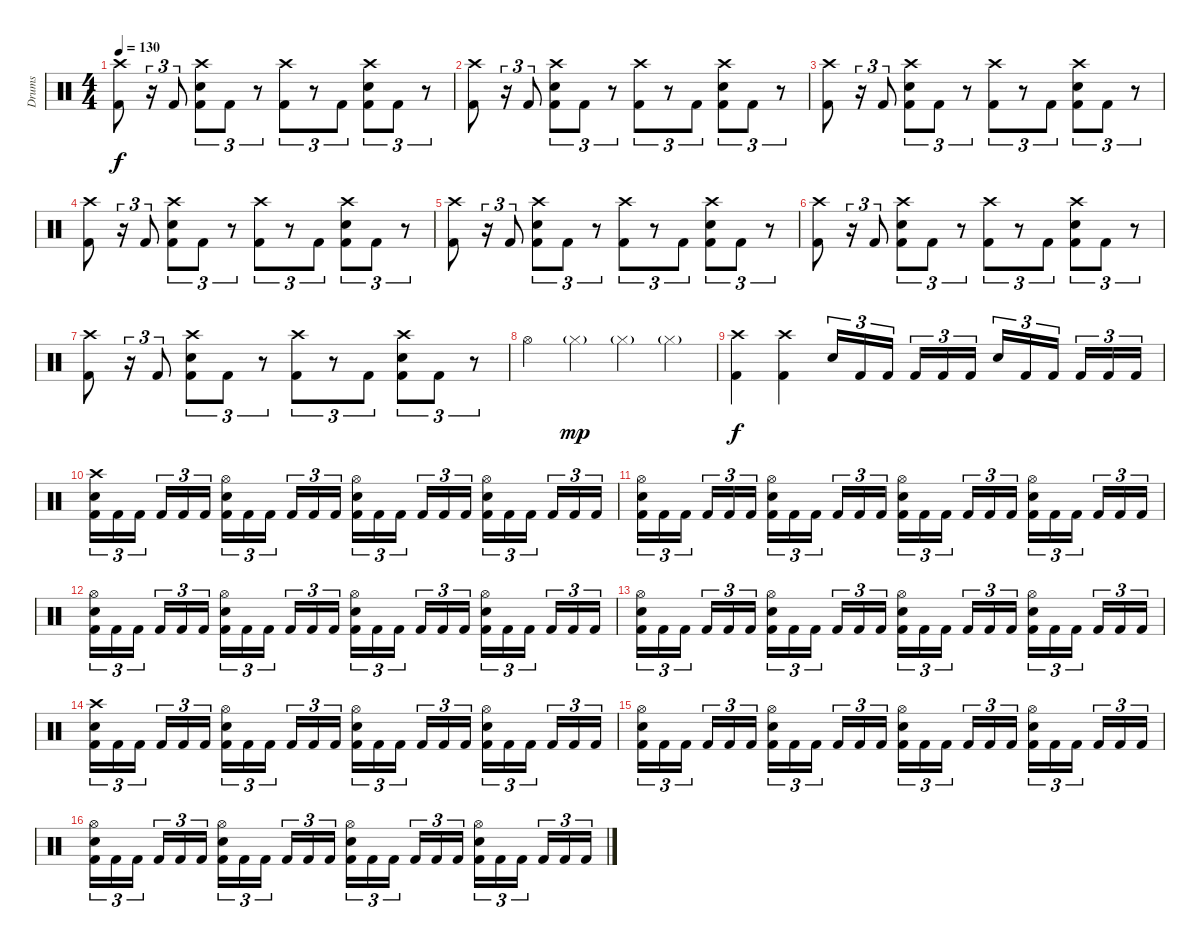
\track ("Drums" "Drums") {instrument percussion}
\staff {score}
\articulation defaults
\ts (4 4)
\tempo 130
\clef neutral
\ks c
("Crash high (hit)" "Kick (hit) 2").8{dy f} r.16{tu (3 2)} "Kick (hit) 2".8{tu (3 2)} ("Crash high (hit)" "Electric Snare (hit)" "Kick (hit) 2").8{tu (3 2)} "Kick (hit) 2".8{tu (3 2)} r.8{tu (3 2)} ("Crash high (hit)" "Kick (hit) 2").8{tu (3 2)} r.8{tu (3 2)} "Kick (hit) 2".8{tu (3 2)} ("Crash high (hit)" "Electric Snare (hit)" "Kick (hit) 2").8{tu (3 2)} "Kick (hit) 2".8{tu (3 2)} r.8{tu (3 2)} |
("Crash high (hit)" "Kick (hit) 2").8 r.16{tu (3 2)} "Kick (hit) 2".8{tu (3 2)} ("Crash high (hit)" "Electric Snare (hit)" "Kick (hit) 2").8{tu (3 2)} "Kick (hit) 2".8{tu (3 2)} r.8{tu (3 2)} ("Crash high (hit)" "Kick (hit) 2").8{tu (3 2)} r.8{tu (3 2)} "Kick (hit) 2".8{tu (3 2)} ("Crash high (hit)" "Electric Snare (hit)" "Kick (hit) 2").8{tu (3 2)} "Kick (hit) 2".8{tu (3 2)} r.8{tu (3 2)} |
("Crash high (hit)" "Kick (hit) 2").8 r.16{tu (3 2)} "Kick (hit) 2".8{tu (3 2)} ("Crash high (hit)" "Electric Snare (hit)" "Kick (hit) 2").8{tu (3 2)} "Kick (hit) 2".8{tu (3 2)} r.8{tu (3 2)} ("Crash high (hit)" "Kick (hit) 2").8{tu (3 2)} r.8{tu (3 2)} "Kick (hit) 2".8{tu (3 2)} ("Crash high (hit)" "Electric Snare (hit)" "Kick (hit) 2").8{tu (3 2)} "Kick (hit) 2".8{tu (3 2)} r.8{tu (3 2)} |
("Crash high (hit)" "Kick (hit) 2").8 r.16{tu (3 2)} "Kick (hit) 2".8{tu (3 2)} ("Crash high (hit)" "Electric Snare (hit)" "Kick (hit) 2").8{tu (3 2)} "Kick (hit) 2".8{tu (3 2)} r.8{tu (3 2)} ("Crash high (hit)" "Kick (hit) 2").8{tu (3 2)} r.8{tu (3 2)} "Kick (hit) 2".8{tu (3 2)} ("Crash high (hit)" "Electric Snare (hit)" "Kick (hit) 2").8{tu (3 2)} "Kick (hit) 2".8{tu (3 2)} r.8{tu (3 2)} |
("Crash high (hit)" "Kick (hit) 2").8 r.16{tu (3 2)} "Kick (hit) 2".8{tu (3 2)} ("Crash high (hit)" "Electric Snare (hit)" "Kick (hit) 2").8{tu (3 2)} "Kick (hit) 2".8{tu (3 2)} r.8{tu (3 2)} ("Crash high (hit)" "Kick (hit) 2").8{tu (3 2)} r.8{tu (3 2)} "Kick (hit) 2".8{tu (3 2)} ("Crash high (hit)" "Electric Snare (hit)" "Kick (hit) 2").8{tu (3 2)} "Kick (hit) 2".8{tu (3 2)} r.8{tu (3 2)} |
("Crash high (hit)" "Kick (hit) 2").8 r.16{tu (3 2)} "Kick (hit) 2".8{tu (3 2)} ("Crash high (hit)" "Electric Snare (hit)" "Kick (hit) 2").8{tu (3 2)} "Kick (hit) 2".8{tu (3 2)} r.8{tu (3 2)} ("Crash high (hit)" "Kick (hit) 2").8{tu (3 2)} r.8{tu (3 2)} "Kick (hit) 2".8{tu (3 2)} ("Crash high (hit)" "Electric Snare (hit)" "Kick (hit) 2").8{tu (3 2)} "Kick (hit) 2".8{tu (3 2)} r.8{tu (3 2)} |
("Crash high (hit)" "Kick (hit) 2").8 r.16{tu (3 2)} "Kick (hit) 2".8{tu (3 2)} ("Crash high (hit)" "Electric Snare (hit)" "Kick (hit) 2").8{tu (3 2)} "Kick (hit) 2".8{tu (3 2)} r.8{tu (3 2)} ("Crash high (hit)" "Kick (hit) 2").8{tu (3 2)} r.8{tu (3 2)} "Kick (hit) 2".8{tu (3 2)} ("Crash high (hit)" "Electric Snare (hit)" "Kick (hit) 2").8{tu (3 2)} "Kick (hit) 2".8{tu (3 2)} r.8{tu (3 2)} |
"Hi-Hat (open)".4 "Hi-Hat (closed)"{g}.4{dy mp} "Hi-Hat (closed)"{g}.4 "Hi-Hat (closed)"{g}.4 |
("Crash high (hit)" "Kick (hit) 2").4{dy f} ("Crash high (hit)" "Kick (hit) 2").4 "Electric Snare (hit)".16{tu (3 2)} "Kick (hit) 2".16{tu (3 2)} "Kick (hit) 2".16{tu (3 2) beam splitsecondary} "Kick (hit) 2".16{tu (3 2)} "Kick (hit) 2".16{tu (3 2)} "Kick (hit) 2".16{tu (3 2)} "Electric Snare (hit)".16{tu (3 2)} "Kick (hit) 2".16{tu (3 2)} "Kick (hit) 2".16{tu (3 2) beam splitsecondary} "Kick (hit) 2".16{tu (3 2)} "Kick (hit) 2".16{tu (3 2)} "Kick (hit) 2".16{tu (3 2)} |
("Crash high (hit)" "Electric Snare (hit)" "Kick (hit) 2").16{tu (3 2)} "Kick (hit) 2".16{tu (3 2)} "Kick (hit) 2".16{tu (3 2) beam splitsecondary} "Kick (hit) 2".16{tu (3 2)} "Kick (hit) 2".16{tu (3 2)} "Kick (hit) 2".16{tu (3 2)} ("Hi-Hat (open)" "Electric Snare (hit)" "Kick (hit) 2").16{tu (3 2)} "Kick (hit) 2".16{tu (3 2)} "Kick (hit) 2".16{tu (3 2) beam splitsecondary} "Kick (hit) 2".16{tu (3 2)} "Kick (hit) 2".16{tu (3 2)} "Kick (hit) 2".16{tu (3 2)} ("Hi-Hat (open)" "Electric Snare (hit)" "Kick (hit) 2").16{tu (3 2)} "Kick (hit) 2".16{tu (3 2)} "Kick (hit) 2".16{tu (3 2) beam splitsecondary} "Kick (hit) 2".16{tu (3 2)} "Kick (hit) 2".16{tu (3 2)} "Kick (hit) 2".16{tu (3 2)} ("Hi-Hat (open)" "Electric Snare (hit)" "Kick (hit) 2").16{tu (3 2)} "Kick (hit) 2".16{tu (3 2)} "Kick (hit) 2".16{tu (3 2) beam splitsecondary} "Kick (hit) 2".16{tu (3 2)} "Kick (hit) 2".16{tu (3 2)} "Kick (hit) 2".16{tu (3 2)} |
("Hi-Hat (open)" "Electric Snare (hit)" "Kick (hit) 2").16{tu (3 2)} "Kick (hit) 2".16{tu (3 2)} "Kick (hit) 2".16{tu (3 2) beam splitsecondary} "Kick (hit) 2".16{tu (3 2)} "Kick (hit) 2".16{tu (3 2)} "Kick (hit) 2".16{tu (3 2)} ("Hi-Hat (open)" "Electric Snare (hit)" "Kick (hit) 2").16{tu (3 2)} "Kick (hit) 2".16{tu (3 2)} "Kick (hit) 2".16{tu (3 2) beam splitsecondary} "Kick (hit) 2".16{tu (3 2)} "Kick (hit) 2".16{tu (3 2)} "Kick (hit) 2".16{tu (3 2)} ("Hi-Hat (open)" "Electric Snare (hit)" "Kick (hit) 2").16{tu (3 2)} "Kick (hit) 2".16{tu (3 2)} "Kick (hit) 2".16{tu (3 2) beam splitsecondary} "Kick (hit) 2".16{tu (3 2)} "Kick (hit) 2".16{tu (3 2)} "Kick (hit) 2".16{tu (3 2)} ("Hi-Hat (open)" "Electric Snare (hit)" "Kick (hit) 2").16{tu (3 2)} "Kick (hit) 2".16{tu (3 2)} "Kick (hit) 2".16{tu (3 2) beam splitsecondary} "Kick (hit) 2".16{tu (3 2)} "Kick (hit) 2".16{tu (3 2)} "Kick (hit) 2".16{tu (3 2)} |
("Hi-Hat (open)" "Electric Snare (hit)" "Kick (hit) 2").16{tu (3 2)} "Kick (hit) 2".16{tu (3 2)} "Kick (hit) 2".16{tu (3 2) beam splitsecondary} "Kick (hit) 2".16{tu (3 2)} "Kick (hit) 2".16{tu (3 2)} "Kick (hit) 2".16{tu (3 2)} ("Hi-Hat (open)" "Electric Snare (hit)" "Kick (hit) 2").16{tu (3 2)} "Kick (hit) 2".16{tu (3 2)} "Kick (hit) 2".16{tu (3 2) beam splitsecondary} "Kick (hit) 2".16{tu (3 2)} "Kick (hit) 2".16{tu (3 2)} "Kick (hit) 2".16{tu (3 2)} ("Hi-Hat (open)" "Electric Snare (hit)" "Kick (hit) 2").16{tu (3 2)} "Kick (hit) 2".16{tu (3 2)} "Kick (hit) 2".16{tu (3 2) beam splitsecondary} "Kick (hit) 2".16{tu (3 2)} "Kick (hit) 2".16{tu (3 2)} "Kick (hit) 2".16{tu (3 2)} ("Hi-Hat (open)" "Electric Snare (hit)" "Kick (hit) 2").16{tu (3 2)} "Kick (hit) 2".16{tu (3 2)} "Kick (hit) 2".16{tu (3 2) beam splitsecondary} "Kick (hit) 2".16{tu (3 2)} "Kick (hit) 2".16{tu (3 2)} "Kick (hit) 2".16{tu (3 2)} |
("Hi-Hat (open)" "Electric Snare (hit)" "Kick (hit) 2").16{tu (3 2)} "Kick (hit) 2".16{tu (3 2)} "Kick (hit) 2".16{tu (3 2) beam splitsecondary} "Kick (hit) 2".16{tu (3 2)} "Kick (hit) 2".16{tu (3 2)} "Kick (hit) 2".16{tu (3 2)} ("Hi-Hat (open)" "Electric Snare (hit)" "Kick (hit) 2").16{tu (3 2)} "Kick (hit) 2".16{tu (3 2)} "Kick (hit) 2".16{tu (3 2) beam splitsecondary} "Kick (hit) 2".16{tu (3 2)} "Kick (hit) 2".16{tu (3 2)} "Kick (hit) 2".16{tu (3 2)} ("Hi-Hat (open)" "Electric Snare (hit)" "Kick (hit) 2").16{tu (3 2)} "Kick (hit) 2".16{tu (3 2)} "Kick (hit) 2".16{tu (3 2) beam splitsecondary} "Kick (hit) 2".16{tu (3 2)} "Kick (hit) 2".16{tu (3 2)} "Kick (hit) 2".16{tu (3 2)} ("Hi-Hat (open)" "Electric Snare (hit)" "Kick (hit) 2").16{tu (3 2)} "Kick (hit) 2".16{tu (3 2)} "Kick (hit) 2".16{tu (3 2) beam splitsecondary} "Kick (hit) 2".16{tu (3 2)} "Kick (hit) 2".16{tu (3 2)} "Kick (hit) 2".16{tu (3 2)} |
("Crash high (hit)" "Electric Snare (hit)" "Kick (hit) 2").16{tu (3 2)} "Kick (hit) 2".16{tu (3 2)} "Kick (hit) 2".16{tu (3 2) beam splitsecondary} "Kick (hit) 2".16{tu (3 2)} "Kick (hit) 2".16{tu (3 2)} "Kick (hit) 2".16{tu (3 2)} ("Hi-Hat (open)" "Electric Snare (hit)" "Kick (hit) 2").16{tu (3 2)} "Kick (hit) 2".16{tu (3 2)} "Kick (hit) 2".16{tu (3 2) beam splitsecondary} "Kick (hit) 2".16{tu (3 2)} "Kick (hit) 2".16{tu (3 2)} "Kick (hit) 2".16{tu (3 2)} ("Hi-Hat (open)" "Electric Snare (hit)" "Kick (hit) 2").16{tu (3 2)} "Kick (hit) 2".16{tu (3 2)} "Kick (hit) 2".16{tu (3 2) beam splitsecondary} "Kick (hit) 2".16{tu (3 2)} "Kick (hit) 2".16{tu (3 2)} "Kick (hit) 2".16{tu (3 2)} ("Hi-Hat (open)" "Electric Snare (hit)" "Kick (hit) 2").16{tu (3 2)} "Kick (hit) 2".16{tu (3 2)} "Kick (hit) 2".16{tu (3 2) beam splitsecondary} "Kick (hit) 2".16{tu (3 2)} "Kick (hit) 2".16{tu (3 2)} "Kick (hit) 2".16{tu (3 2)} |
("Hi-Hat (open)" "Electric Snare (hit)" "Kick (hit) 2").16{tu (3 2)} "Kick (hit) 2".16{tu (3 2)} "Kick (hit) 2".16{tu (3 2) beam splitsecondary} "Kick (hit) 2".16{tu (3 2)} "Kick (hit) 2".16{tu (3 2)} "Kick (hit) 2".16{tu (3 2)} ("Hi-Hat (open)" "Electric Snare (hit)" "Kick (hit) 2").16{tu (3 2)} "Kick (hit) 2".16{tu (3 2)} "Kick (hit) 2".16{tu (3 2) beam splitsecondary} "Kick (hit) 2".16{tu (3 2)} "Kick (hit) 2".16{tu (3 2)} "Kick (hit) 2".16{tu (3 2)} ("Hi-Hat (open)" "Electric Snare (hit)" "Kick (hit) 2").16{tu (3 2)} "Kick (hit) 2".16{tu (3 2)} "Kick (hit) 2".16{tu (3 2) beam splitsecondary} "Kick (hit) 2".16{tu (3 2)} "Kick (hit) 2".16{tu (3 2)} "Kick (hit) 2".16{tu (3 2)} ("Hi-Hat (open)" "Electric Snare (hit)" "Kick (hit) 2").16{tu (3 2)} "Kick (hit) 2".16{tu (3 2)} "Kick (hit) 2".16{tu (3 2) beam splitsecondary} "Kick (hit) 2".16{tu (3 2)} "Kick (hit) 2".16{tu (3 2)} "Kick (hit) 2".16{tu (3 2)} |
("Hi-Hat (open)" "Electric Snare (hit)" "Kick (hit) 2").16{tu (3 2)} "Kick (hit) 2".16{tu (3 2)} "Kick (hit) 2".16{tu (3 2) beam splitsecondary} "Kick (hit) 2".16{tu (3 2)} "Kick (hit) 2".16{tu (3 2)} "Kick (hit) 2".16{tu (3 2)} ("Hi-Hat (open)" "Electric Snare (hit)" "Kick (hit) 2").16{tu (3 2)} "Kick (hit) 2".16{tu (3 2)} "Kick (hit) 2".16{tu (3 2) beam splitsecondary} "Kick (hit) 2".16{tu (3 2)} "Kick (hit) 2".16{tu (3 2)} "Kick (hit) 2".16{tu (3 2)} ("Hi-Hat (open)" "Electric Snare (hit)" "Kick (hit) 2").16{tu (3 2)} "Kick (hit) 2".16{tu (3 2)} "Kick (hit) 2".16{tu (3 2) beam splitsecondary} "Kick (hit) 2".16{tu (3 2)} "Kick (hit) 2".16{tu (3 2)} "Kick (hit) 2".16{tu (3 2)} ("Hi-Hat (open)" "Electric Snare (hit)" "Kick (hit) 2").16{tu (3 2)} "Kick (hit) 2".16{tu (3 2)} "Kick (hit) 2".16{tu (3 2) beam splitsecondary} "Kick (hit) 2".16{tu (3 2)} "Kick (hit) 2".16{tu (3 2)} "Kick (hit) 2".16{tu (3 2)}
